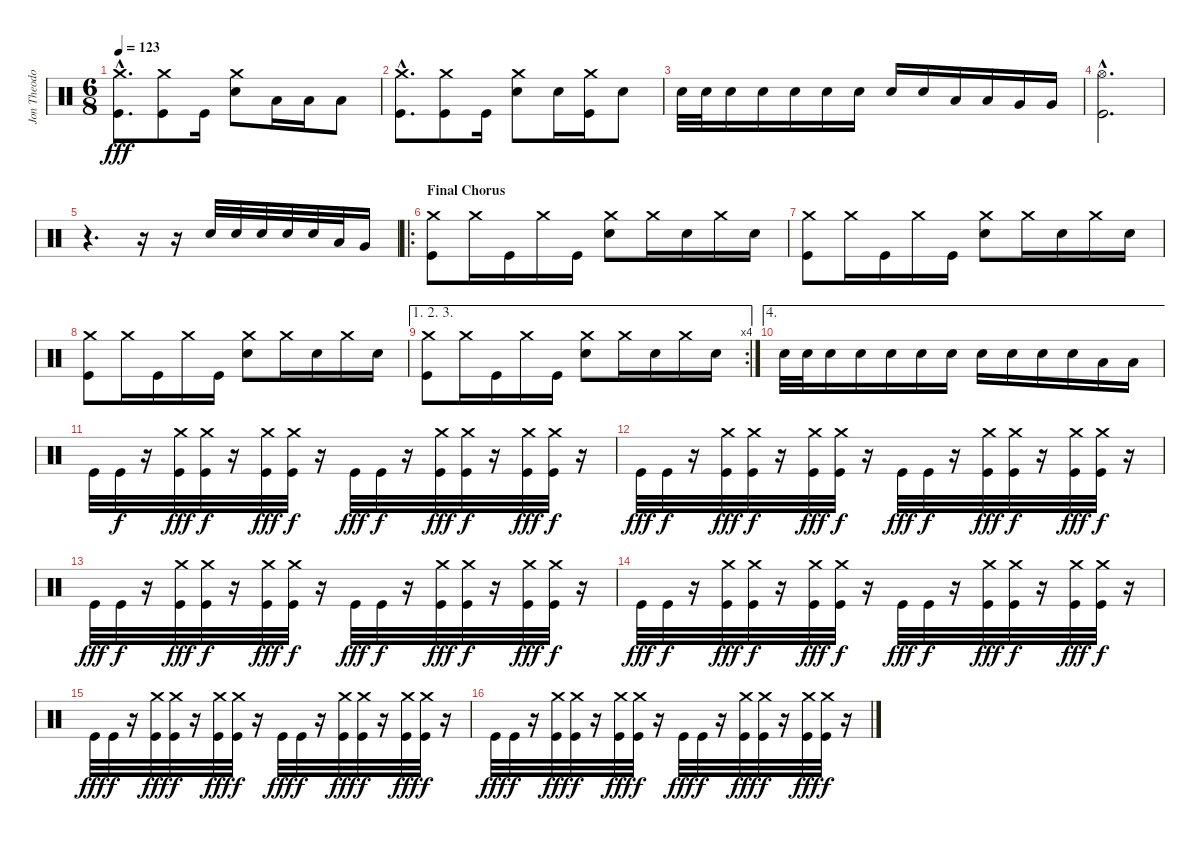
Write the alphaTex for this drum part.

\track ("Jon Theodore - Drums" "Jon Theodo") {instrument percussion}
\staff {score}
\articulation defaults
\ts (6 8)
\tempo 123
\clef neutral
\ks c
("Crash medium (hit)"{hac} "Kick (hit)"{hac}).8{d dy fff} ("Crash medium (hit)" "Kick (hit)").8 "Kick (hit)".16 ("Crash medium (hit)" "Snare (hit) 2").8 "Low Tom (hit)".16 "Low Tom (hit)".16 "Low Tom (hit)".8 |
("Crash medium (hit)"{hac} "Kick (hit)"{hac}).8{d} ("Crash medium (hit)" "Kick (hit)").8 "Kick (hit)".16 ("Crash medium (hit)" "Snare (hit) 2").8 "Snare (hit) 2".16 ("Crash medium (hit)" "Kick (hit)").16 "Snare (hit) 2".8 |
"Snare (hit) 2".32 "Snare (hit) 2".32 "Snare (hit) 2".16 "Snare (hit) 2".16 "Snare (hit) 2".16 "Snare (hit) 2".16 "Snare (hit) 2".16 "Snare (hit) 2".16 "Snare (hit) 2".16 "Low Tom (hit)".16 "Low Tom (hit)".16 "Very Low Tom (hit)".16 "Very Low Tom (hit)".16 |
("Hi-Hat (open)"{hac} "Kick (hit)"{hac}).2{d} |
r.4{d} r.16 r.16 "Snare (hit) 2".32 "Snare (hit) 2".32 "Snare (hit) 2".32 "Snare (hit) 2".32 "Snare (hit) 2".32 "Low Tom (hit)".32 "Very Low Tom (hit)".16 |
\ro
\section ("" "Final Chorus")
("Crash medium (hit)" "Kick (hit)").8 "Crash medium (hit)".16 "Kick (hit)".16 "Crash medium (hit)".16 "Kick (hit)".16 ("Crash medium (hit)" "Snare (hit) 2").8 "Crash medium (hit)".16 "Snare (hit) 2".16 "Crash medium (hit)".16 "Snare (hit) 2".16 |
("Crash medium (hit)" "Kick (hit)").8 "Crash medium (hit)".16 "Kick (hit)".16 "Crash medium (hit)".16 "Kick (hit)".16 ("Crash medium (hit)" "Snare (hit) 2").8 "Crash medium (hit)".16 "Snare (hit) 2".16 "Crash medium (hit)".16 "Snare (hit) 2".16 |
("Crash medium (hit)" "Kick (hit)").8 "Crash medium (hit)".16 "Kick (hit)".16 "Crash medium (hit)".16 "Kick (hit)".16 ("Crash medium (hit)" "Snare (hit) 2").8 "Crash medium (hit)".16 "Snare (hit) 2".16 "Crash medium (hit)".16 "Snare (hit) 2".16 |
\ae (1 2 3)
\rc 4
("Crash medium (hit)" "Kick (hit)").8 "Crash medium (hit)".16 "Kick (hit)".16 "Crash medium (hit)".16 "Kick (hit)".16 ("Crash medium (hit)" "Snare (hit) 2").8 "Crash medium (hit)".16 "Snare (hit) 2".16 "Crash medium (hit)".16 "Snare (hit) 2".16 |
\ae 4 "Snare (hit) 2".32 "Snare (hit) 2".32 "Snare (hit) 2".16 "Snare (hit) 2".16 "Snare (hit) 2".16 "Snare (hit) 2".16 "Snare (hit) 2".16 "Snare (hit) 2".16 "Snare (hit) 2".16 "Snare (hit) 2".16 "Snare (hit) 2".16 "Low Tom (hit)".16 "Low Tom (hit)".16
|
"Kick (hit)".32 "Kick (hit)".32{dy f} r.16 ("Crash medium (hit)" "Kick (hit)").32{dy fff} ("Crash medium (hit)" "Kick (hit)").32{dy f} r.16 ("Crash medium (hit)" "Kick (hit)").32{dy fff} ("Crash medium (hit)" "Kick (hit)").32{dy f} r.16 "Kick (hit)".32{dy fff} "Kick (hit)".32{dy f} r.16 ("Crash medium (hit)" "Kick (hit)").32{dy fff} ("Crash medium (hit)" "Kick (hit)").32{dy f} r.16 ("Crash medium (hit)" "Kick (hit)").32{dy fff} ("Crash medium (hit)" "Kick (hit)").32{dy f} r.16 |
"Kick (hit)".32{dy fff} "Kick (hit)".32{dy f} r.16 ("Crash medium (hit)" "Kick (hit)").32{dy fff} ("Crash medium (hit)" "Kick (hit)").32{dy f} r.16 ("Crash medium (hit)" "Kick (hit)").32{dy fff} ("Crash medium (hit)" "Kick (hit)").32{dy f} r.16 "Kick (hit)".32{dy fff} "Kick (hit)".32{dy f} r.16 ("Crash medium (hit)" "Kick (hit)").32{dy fff} ("Crash medium (hit)" "Kick (hit)").32{dy f} r.16 ("Crash medium (hit)" "Kick (hit)").32{dy fff} ("Crash medium (hit)" "Kick (hit)").32{dy f} r.16 |
"Kick (hit)".32{dy fff} "Kick (hit)".32{dy f} r.16 ("Crash medium (hit)" "Kick (hit)").32{dy fff} ("Crash medium (hit)" "Kick (hit)").32{dy f} r.16 ("Crash medium (hit)" "Kick (hit)").32{dy fff} ("Crash medium (hit)" "Kick (hit)").32{dy f} r.16 "Kick (hit)".32{dy fff} "Kick (hit)".32{dy f} r.16 ("Crash medium (hit)" "Kick (hit)").32{dy fff} ("Crash medium (hit)" "Kick (hit)").32{dy f} r.16 ("Crash medium (hit)" "Kick (hit)").32{dy fff} ("Crash medium (hit)" "Kick (hit)").32{dy f} r.16 |
"Kick (hit)".32{dy fff} "Kick (hit)".32{dy f} r.16 ("Crash medium (hit)" "Kick (hit)").32{dy fff} ("Crash medium (hit)" "Kick (hit)").32{dy f} r.16 ("Crash medium (hit)" "Kick (hit)").32{dy fff} ("Crash medium (hit)" "Kick (hit)").32{dy f} r.16 "Kick (hit)".32{dy fff} "Kick (hit)".32{dy f} r.16 ("Crash medium (hit)" "Kick (hit)").32{dy fff} ("Crash medium (hit)" "Kick (hit)").32{dy f} r.16 ("Crash medium (hit)" "Kick (hit)").32{dy fff} ("Crash medium (hit)" "Kick (hit)").32{dy f} r.16 |
"Kick (hit)".32{dy fff} "Kick (hit)".32{dy f} r.16 ("Crash medium (hit)" "Kick (hit)").32{dy fff} ("Crash medium (hit)" "Kick (hit)").32{dy f} r.16 ("Crash medium (hit)" "Kick (hit)").32{dy fff} ("Crash medium (hit)" "Kick (hit)").32{dy f} r.16 "Kick (hit)".32{dy fff} "Kick (hit)".32{dy f} r.16 ("Crash medium (hit)" "Kick (hit)").32{dy fff} ("Crash medium (hit)" "Kick (hit)").32{dy f} r.16 ("Crash medium (hit)" "Kick (hit)").32{dy fff} ("Crash medium (hit)" "Kick (hit)").32{dy f} r.16 |
"Kick (hit)".32{dy fff} "Kick (hit)".32{dy f} r.16 ("Crash medium (hit)" "Kick (hit)").32{dy fff} ("Crash medium (hit)" "Kick (hit)").32{dy f} r.16 ("Crash medium (hit)" "Kick (hit)").32{dy fff} ("Crash medium (hit)" "Kick (hit)").32{dy f} r.16 "Kick (hit)".32{dy fff} "Kick (hit)".32{dy f} r.16 ("Crash medium (hit)" "Kick (hit)").32{dy fff} ("Crash medium (hit)" "Kick (hit)").32{dy f} r.16 ("Crash medium (hit)" "Kick (hit)").32{dy fff} ("Crash medium (hit)" "Kick (hit)").32{dy f} r.16
